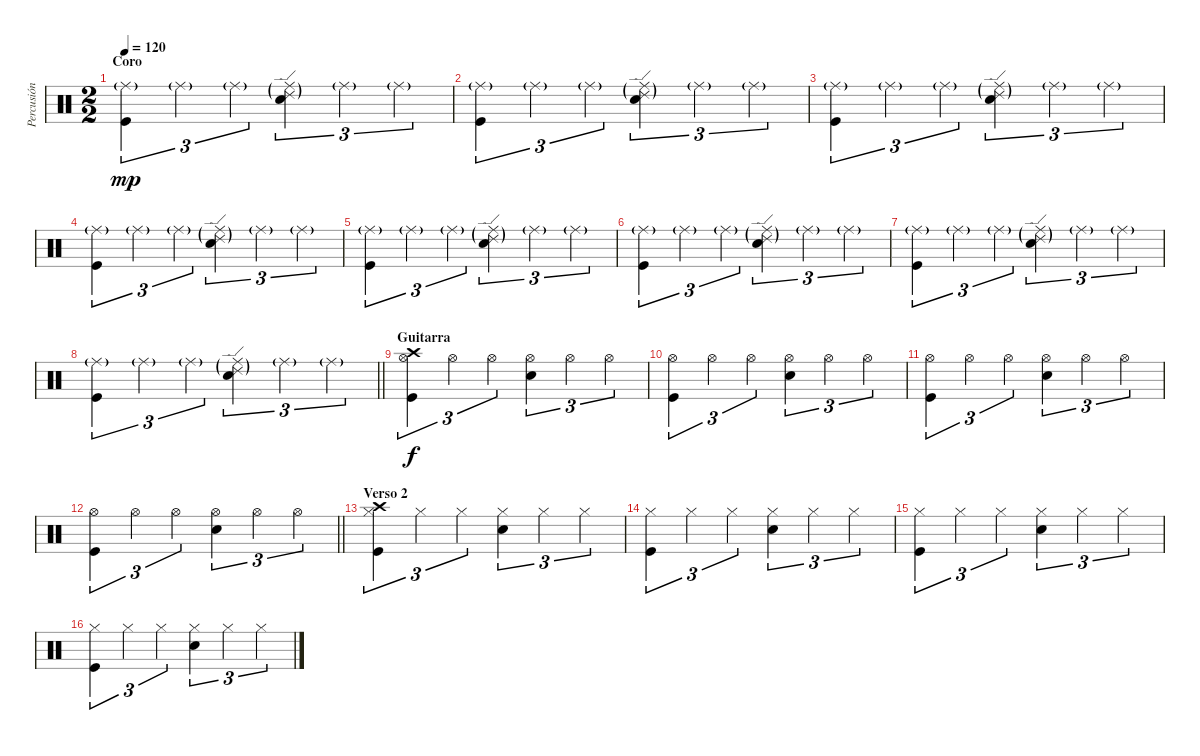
\track ("Percusión" "Percusión") {instrument percussion}
\staff {score}
\articulation defaults
\ts (2 2)
\section ("" "Coro")
\tempo 120
\clef neutral
\ks c
("Ride (middle)"{g} "Kick (hit)").4{tu (3 2) dy mp} "Ride (middle)"{g}.4{tu (3 2)} "Ride (middle)"{g}.4{tu (3 2)} ("Ride (middle)"{g} "Ride (edge) 2"{g} "Electric Snare (hit)").4{tu (3 2)} "Ride (middle)"{g}.4{tu (3 2)} "Ride (middle)"{g}.4{tu (3 2)} |
("Ride (middle)"{g} "Kick (hit)").4{tu (3 2)} "Ride (middle)"{g}.4{tu (3 2)} "Ride (middle)"{g}.4{tu (3 2)} ("Ride (middle)"{g} "Ride (edge) 2"{g} "Electric Snare (hit)").4{tu (3 2)} "Ride (middle)"{g}.4{tu (3 2)} "Ride (middle)"{g}.4{tu (3 2)} |
("Ride (middle)"{g} "Kick (hit)").4{tu (3 2)} "Ride (middle)"{g}.4{tu (3 2)} "Ride (middle)"{g}.4{tu (3 2)} ("Ride (middle)"{g} "Ride (edge) 2"{g} "Electric Snare (hit)").4{tu (3 2)} "Ride (middle)"{g}.4{tu (3 2)} "Ride (middle)"{g}.4{tu (3 2)} |
("Ride (middle)"{g} "Kick (hit)").4{tu (3 2)} "Ride (middle)"{g}.4{tu (3 2)} "Ride (middle)"{g}.4{tu (3 2)} ("Ride (middle)"{g} "Ride (edge) 2"{g} "Electric Snare (hit)").4{tu (3 2)} "Ride (middle)"{g}.4{tu (3 2)} "Ride (middle)"{g}.4{tu (3 2)} |
("Ride (middle)"{g} "Kick (hit)").4{tu (3 2)} "Ride (middle)"{g}.4{tu (3 2)} "Ride (middle)"{g}.4{tu (3 2)} ("Ride (middle)"{g} "Ride (edge) 2"{g} "Electric Snare (hit)").4{tu (3 2)} "Ride (middle)"{g}.4{tu (3 2)} "Ride (middle)"{g}.4{tu (3 2)} |
("Ride (middle)"{g} "Kick (hit)").4{tu (3 2)} "Ride (middle)"{g}.4{tu (3 2)} "Ride (middle)"{g}.4{tu (3 2)} ("Ride (middle)"{g} "Ride (edge) 2"{g} "Electric Snare (hit)").4{tu (3 2)} "Ride (middle)"{g}.4{tu (3 2)} "Ride (middle)"{g}.4{tu (3 2)} |
("Ride (middle)"{g} "Kick (hit)").4{tu (3 2)} "Ride (middle)"{g}.4{tu (3 2)} "Ride (middle)"{g}.4{tu (3 2)} ("Ride (middle)"{g} "Ride (edge) 2"{g} "Electric Snare (hit)").4{tu (3 2)} "Ride (middle)"{g}.4{tu (3 2)} "Ride (middle)"{g}.4{tu (3 2)} |
\barLineRight lightlight
("Ride (middle)"{g} "Kick (hit)").4{tu (3 2)} "Ride (middle)"{g}.4{tu (3 2)} "Ride (middle)"{g}.4{tu (3 2)} ("Ride (middle)"{g} "Ride (edge) 2"{g} "Electric Snare (hit)").4{tu (3 2)} "Ride (middle)"{g}.4{tu (3 2)} "Ride (middle)"{g}.4{tu (3 2)} |
\section ("" "Guitarra")
("Crash high (hit)" "Hi-Hat (open)" "Kick (hit)").4{tu (3 2) dy f} "Hi-Hat (open)".4{tu (3 2)} "Hi-Hat (open)".4{tu (3 2)} ("Hi-Hat (open)" "Electric Snare (hit)").4{tu (3 2)} "Hi-Hat (open)".4{tu (3 2)} "Hi-Hat (open)".4{tu (3 2)} |
("Hi-Hat (open)" "Kick (hit)").4{tu (3 2)} "Hi-Hat (open)".4{tu (3 2)} "Hi-Hat (open)".4{tu (3 2)} ("Hi-Hat (open)" "Electric Snare (hit)").4{tu (3 2)} "Hi-Hat (open)".4{tu (3 2)} "Hi-Hat (open)".4{tu (3 2)} |
("Hi-Hat (open)" "Kick (hit)").4{tu (3 2)} "Hi-Hat (open)".4{tu (3 2)} "Hi-Hat (open)".4{tu (3 2)} ("Hi-Hat (open)" "Electric Snare (hit)").4{tu (3 2)} "Hi-Hat (open)".4{tu (3 2)} "Hi-Hat (open)".4{tu (3 2)} |
\barLineRight lightlight
("Hi-Hat (open)" "Kick (hit)").4{tu (3 2)} "Hi-Hat (open)".4{tu (3 2)} "Hi-Hat (open)".4{tu (3 2)} ("Hi-Hat (open)" "Electric Snare (hit)").4{tu (3 2)} "Hi-Hat (open)".4{tu (3 2)} "Hi-Hat (open)".4{tu (3 2)} |
\section ("" "Verso 2")
("Crash high (hit)" "Hi-Hat (closed)" "Kick (hit)").4{tu (3 2)} "Hi-Hat (closed)".4{tu (3 2)} "Hi-Hat (closed)".4{tu (3 2)} ("Hi-Hat (closed)" "Electric Snare (hit)").4{tu (3 2)} "Hi-Hat (closed)".4{tu (3 2)} "Hi-Hat (closed)".4{tu (3 2)} |
("Hi-Hat (closed)" "Kick (hit)").4{tu (3 2)} "Hi-Hat (closed)".4{tu (3 2)} "Hi-Hat (closed)".4{tu (3 2)} ("Hi-Hat (closed)" "Electric Snare (hit)").4{tu (3 2)} "Hi-Hat (closed)".4{tu (3 2)} "Hi-Hat (closed)".4{tu (3 2)} |
("Hi-Hat (closed)" "Kick (hit)").4{tu (3 2)} "Hi-Hat (closed)".4{tu (3 2)} "Hi-Hat (closed)".4{tu (3 2)} ("Hi-Hat (closed)" "Electric Snare (hit)").4{tu (3 2)} "Hi-Hat (closed)".4{tu (3 2)} "Hi-Hat (closed)".4{tu (3 2)} |
("Hi-Hat (closed)" "Kick (hit)").4{tu (3 2)} "Hi-Hat (closed)".4{tu (3 2)} "Hi-Hat (closed)".4{tu (3 2)} ("Hi-Hat (closed)" "Electric Snare (hit)").4{tu (3 2)} "Hi-Hat (closed)".4{tu (3 2)} "Hi-Hat (closed)".4{tu (3 2)}
